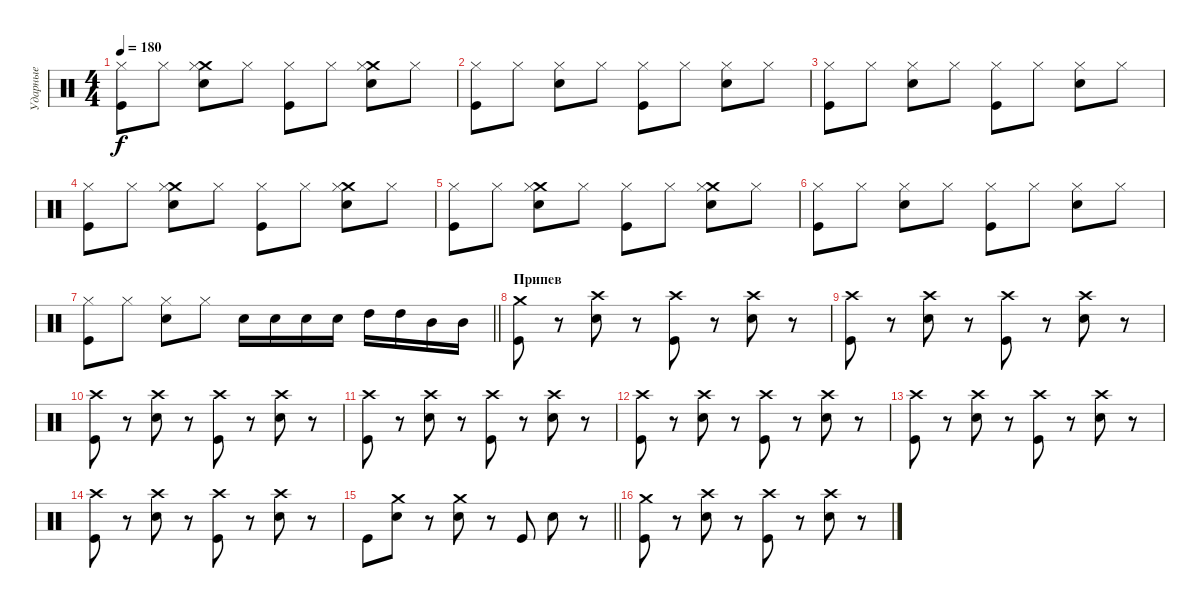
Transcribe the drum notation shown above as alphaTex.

\track ("Ударные" "Ударные") {instrument percussion}
\staff {score}
\articulation defaults
\ts (4 4)
\tempo 180
\clef neutral
\ks c
("Hi-Hat (closed)" "Kick (hit)").8{dy f} "Hi-Hat (closed)".8 ("Crash medium (hit)" "Hi-Hat (closed)" "Electric Snare (hit)").8 "Hi-Hat (closed)".8 ("Hi-Hat (closed)" "Kick (hit)").8 "Hi-Hat (closed)".8 ("Crash medium (hit)" "Hi-Hat (closed)" "Electric Snare (hit)").8 "Hi-Hat (closed)".8 |
("Hi-Hat (closed)" "Kick (hit)").8 "Hi-Hat (closed)".8 ("Hi-Hat (closed)" "Electric Snare (hit)").8 "Hi-Hat (closed)".8 ("Hi-Hat (closed)" "Kick (hit)").8 "Hi-Hat (closed)".8 ("Hi-Hat (closed)" "Electric Snare (hit)").8 "Hi-Hat (closed)".8 |
("Hi-Hat (closed)" "Kick (hit)").8 "Hi-Hat (closed)".8 ("Hi-Hat (closed)" "Electric Snare (hit)").8 "Hi-Hat (closed)".8 ("Hi-Hat (closed)" "Kick (hit)").8 "Hi-Hat (closed)".8 ("Hi-Hat (closed)" "Electric Snare (hit)").8 "Hi-Hat (closed)".8 |
("Hi-Hat (closed)" "Kick (hit)").8 "Hi-Hat (closed)".8 ("Crash medium (hit)" "Hi-Hat (closed)" "Electric Snare (hit)").8 "Hi-Hat (closed)".8 ("Hi-Hat (closed)" "Kick (hit)").8 "Hi-Hat (closed)".8 ("Crash medium (hit)" "Hi-Hat (closed)" "Electric Snare (hit)").8 "Hi-Hat (closed)".8 |
("Hi-Hat (closed)" "Kick (hit)").8 "Hi-Hat (closed)".8 ("Crash medium (hit)" "Hi-Hat (closed)" "Electric Snare (hit)").8 "Hi-Hat (closed)".8 ("Hi-Hat (closed)" "Kick (hit)").8 "Hi-Hat (closed)".8 ("Crash medium (hit)" "Hi-Hat (closed)" "Electric Snare (hit)").8 "Hi-Hat (closed)".8 |
("Hi-Hat (closed)" "Kick (hit)").8 "Hi-Hat (closed)".8 ("Hi-Hat (closed)" "Electric Snare (hit)").8 "Hi-Hat (closed)".8 ("Hi-Hat (closed)" "Kick (hit)").8 "Hi-Hat (closed)".8 ("Hi-Hat (closed)" "Electric Snare (hit)").8 "Hi-Hat (closed)".8 |
\barLineRight lightlight
("Hi-Hat (closed)" "Kick (hit)").8 "Hi-Hat (closed)".8 ("Hi-Hat (closed)" "Electric Snare (hit)").8 "Hi-Hat (closed)".8 "Electric Snare (hit)".16 "Electric Snare (hit)".16 "Electric Snare (hit)".16 "Electric Snare (hit)".16 "High Tom (hit)".16 "High Tom (hit)".16 "Mid Tom (hit)".16 "Mid Tom (hit)".16 |
\section ("" "Припев")
("Crash medium (hit)" "Kick (hit)").8 r.8 ("Crash high (hit)" "Electric Snare (hit)").8 r.8 ("Crash high (hit)" "Kick (hit)").8 r.8 ("Crash high (hit)" "Electric Snare (hit)").8 r.8 |
("Crash high (hit)" "Kick (hit)").8 r.8 ("Crash high (hit)" "Electric Snare (hit)").8 r.8 ("Crash high (hit)" "Kick (hit)").8 r.8 ("Crash high (hit)" "Electric Snare (hit)").8 r.8 |
("Crash high (hit)" "Kick (hit)").8 r.8 ("Crash high (hit)" "Electric Snare (hit)").8 r.8 ("Crash high (hit)" "Kick (hit)").8 r.8 ("Crash high (hit)" "Electric Snare (hit)").8 r.8 |
("Crash high (hit)" "Kick (hit)").8 r.8 ("Crash high (hit)" "Electric Snare (hit)").8 r.8 ("Crash high (hit)" "Kick (hit)").8 r.8 ("Crash high (hit)" "Electric Snare (hit)").8 r.8 |
("Crash high (hit)" "Kick (hit)").8 r.8 ("Crash high (hit)" "Electric Snare (hit)").8 r.8 ("Crash high (hit)" "Kick (hit)").8 r.8 ("Crash high (hit)" "Electric Snare (hit)").8 r.8 |
("Crash high (hit)" "Kick (hit)").8 r.8 ("Crash high (hit)" "Electric Snare (hit)").8 r.8 ("Crash high (hit)" "Kick (hit)").8 r.8 ("Crash high (hit)" "Electric Snare (hit)").8 r.8 |
("Crash high (hit)" "Kick (hit)").8 r.8 ("Crash high (hit)" "Electric Snare (hit)").8 r.8 ("Crash high (hit)" "Kick (hit)").8 r.8 ("Crash high (hit)" "Electric Snare (hit)").8 r.8 |
\barLineRight lightlight "Kick (hit)".8
("Crash medium (hit)" "Electric Snare (hit)").8 r.8 ("Crash medium (hit)" "Electric Snare (hit)").8 r.8 "Kick (hit)".8 "Electric Snare (hit)".8 r.8 |
("Crash medium (hit)" "Kick (hit)").8 r.8 ("Crash high (hit)" "Electric Snare (hit)").8 r.8 ("Crash high (hit)" "Kick (hit)").8 r.8 ("Crash high (hit)" "Electric Snare (hit)").8 r.8
